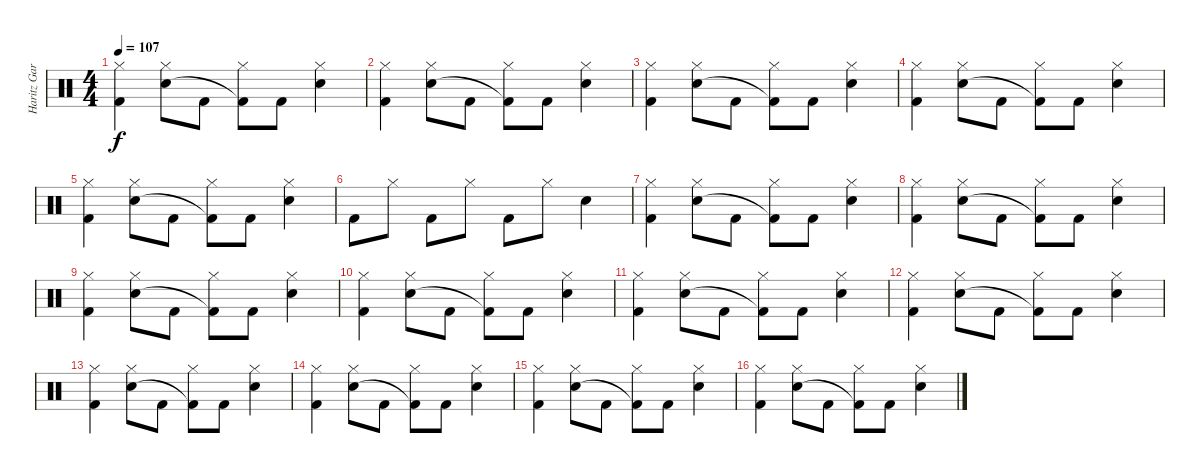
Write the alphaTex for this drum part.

\track ("Haritz Gardo" "Haritz Gar") {instrument percussion}
\staff {score}
\articulation defaults
\ts (4 4)
\tempo 107
\clef neutral
\ks c
("Hi-Hat (closed)" "Kick (hit) 2").4{dy f} ("Hi-Hat (closed)" "Electric Snare (hit)").8 "Kick (hit) 2".8 ("Hi-Hat (closed)" "Kick (hit) 2"{t}).8 "Kick (hit) 2".8 ("Hi-Hat (closed)" "Electric Snare (hit)").4 |
("Hi-Hat (closed)" "Kick (hit) 2").4 ("Hi-Hat (closed)" "Electric Snare (hit)").8 "Kick (hit) 2".8 ("Hi-Hat (closed)" "Kick (hit) 2"{t}).8 "Kick (hit) 2".8 ("Hi-Hat (closed)" "Electric Snare (hit)").4 |
("Hi-Hat (closed)" "Kick (hit) 2").4 ("Hi-Hat (closed)" "Electric Snare (hit)").8 "Kick (hit) 2".8 ("Hi-Hat (closed)" "Kick (hit) 2"{t}).8 "Kick (hit) 2".8 ("Hi-Hat (closed)" "Electric Snare (hit)").4 |
("Hi-Hat (closed)" "Kick (hit) 2").4 ("Hi-Hat (closed)" "Electric Snare (hit)").8 "Kick (hit) 2".8 ("Hi-Hat (closed)" "Kick (hit) 2"{t}).8 "Kick (hit) 2".8 ("Hi-Hat (closed)" "Electric Snare (hit)").4 |
("Hi-Hat (closed)" "Kick (hit) 2").4 ("Hi-Hat (closed)" "Electric Snare (hit)").8 "Kick (hit) 2".8 ("Hi-Hat (closed)" "Kick (hit) 2"{t}).8 "Kick (hit) 2".8 ("Hi-Hat (closed)" "Electric Snare (hit)").4 |
"Kick (hit) 2".8 "Hi-Hat (closed)".8 "Kick (hit) 2".8 "Hi-Hat (closed)".8 "Kick (hit) 2".8 "Hi-Hat (closed)".8 "Electric Snare (hit)".4 |
("Hi-Hat (closed)" "Kick (hit) 2").4 ("Hi-Hat (closed)" "Electric Snare (hit)").8 "Kick (hit) 2".8 ("Hi-Hat (closed)" "Kick (hit) 2"{t}).8 "Kick (hit) 2".8 ("Hi-Hat (closed)" "Electric Snare (hit)").4 |
("Hi-Hat (closed)" "Kick (hit) 2").4 ("Hi-Hat (closed)" "Electric Snare (hit)").8 "Kick (hit) 2".8 ("Hi-Hat (closed)" "Kick (hit) 2"{t}).8 "Kick (hit) 2".8 ("Hi-Hat (closed)" "Electric Snare (hit)").4 |
("Hi-Hat (closed)" "Kick (hit) 2").4 ("Hi-Hat (closed)" "Electric Snare (hit)").8 "Kick (hit) 2".8 ("Hi-Hat (closed)" "Kick (hit) 2"{t}).8 "Kick (hit) 2".8 ("Hi-Hat (closed)" "Electric Snare (hit)").4 |
("Hi-Hat (closed)" "Kick (hit) 2").4 ("Hi-Hat (closed)" "Electric Snare (hit)").8 "Kick (hit) 2".8 ("Hi-Hat (closed)" "Kick (hit) 2"{t}).8 "Kick (hit) 2".8 ("Hi-Hat (closed)" "Electric Snare (hit)").4 |
("Hi-Hat (closed)" "Kick (hit) 2").4 ("Hi-Hat (closed)" "Electric Snare (hit)").8 "Kick (hit) 2".8 ("Hi-Hat (closed)" "Kick (hit) 2"{t}).8 "Kick (hit) 2".8 ("Hi-Hat (closed)" "Electric Snare (hit)").4 |
("Hi-Hat (closed)" "Kick (hit) 2").4 ("Hi-Hat (closed)" "Electric Snare (hit)").8 "Kick (hit) 2".8 ("Hi-Hat (closed)" "Kick (hit) 2"{t}).8 "Kick (hit) 2".8 ("Hi-Hat (closed)" "Electric Snare (hit)").4 |
("Hi-Hat (closed)" "Kick (hit) 2").4 ("Hi-Hat (closed)" "Electric Snare (hit)").8 "Kick (hit) 2".8 ("Hi-Hat (closed)" "Kick (hit) 2"{t}).8 "Kick (hit) 2".8 ("Hi-Hat (closed)" "Electric Snare (hit)").4 |
("Hi-Hat (closed)" "Kick (hit) 2").4 ("Hi-Hat (closed)" "Electric Snare (hit)").8 "Kick (hit) 2".8 ("Hi-Hat (closed)" "Kick (hit) 2"{t}).8 "Kick (hit) 2".8 ("Hi-Hat (closed)" "Electric Snare (hit)").4 |
("Hi-Hat (closed)" "Kick (hit) 2").4 ("Hi-Hat (closed)" "Electric Snare (hit)").8 "Kick (hit) 2".8 ("Hi-Hat (closed)" "Kick (hit) 2"{t}).8 "Kick (hit) 2".8 ("Hi-Hat (closed)" "Electric Snare (hit)").4 |
("Hi-Hat (closed)" "Kick (hit) 2").4 ("Hi-Hat (closed)" "Electric Snare (hit)").8 "Kick (hit) 2".8 ("Hi-Hat (closed)" "Kick (hit) 2"{t}).8 "Kick (hit) 2".8 ("Hi-Hat (closed)" "Electric Snare (hit)").4
